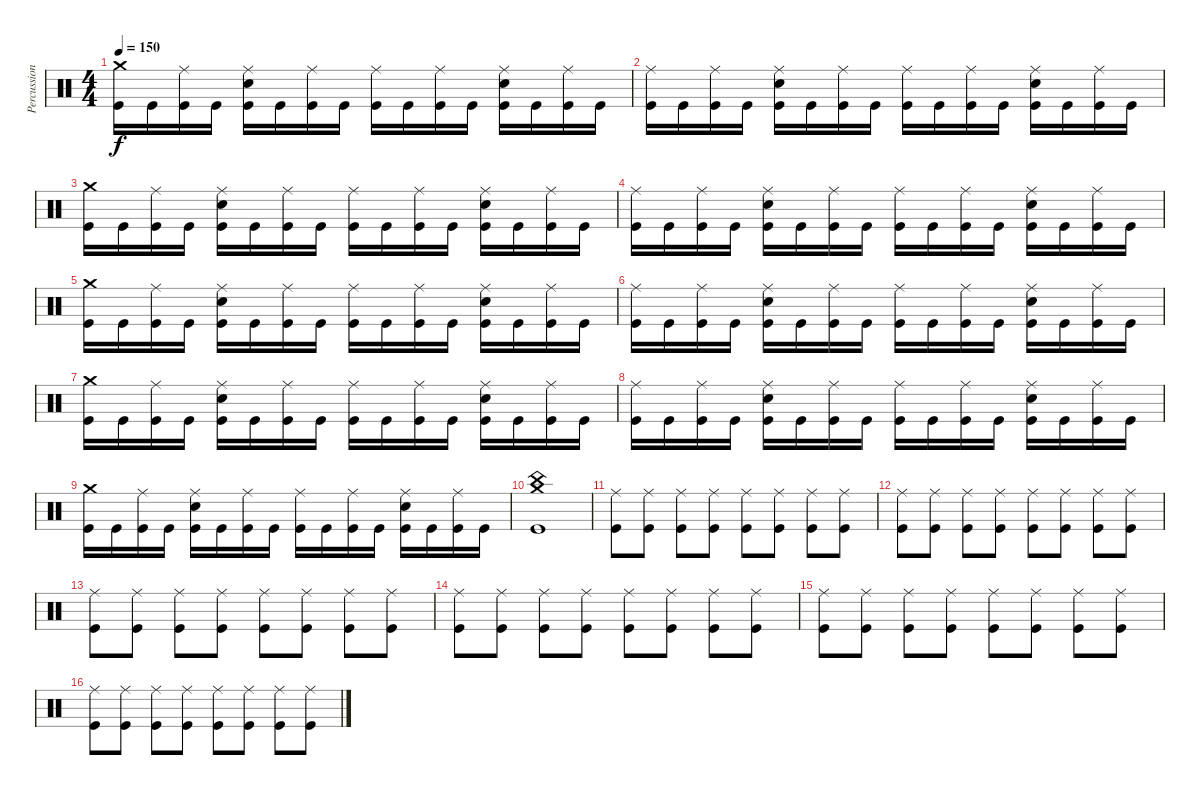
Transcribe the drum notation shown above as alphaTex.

\track ("Percussioni" "Percussion") {instrument percussion}
\staff {score}
\articulation defaults
\ts (4 4)
\tempo 150
\clef neutral
\ks c
("Crash medium (hit)" "Kick (hit)").16{dy f} "Kick (hit)".16 ("Ride (middle)" "Kick (hit)").16 "Kick (hit)".16 ("Ride (middle)" "Electric Snare (hit)" "Kick (hit)").16 "Kick (hit)".16 ("Ride (middle)" "Kick (hit)").16 "Kick (hit)".16 ("Ride (middle)" "Kick (hit)").16 "Kick (hit)".16 ("Ride (middle)" "Kick (hit)").16 "Kick (hit)".16 ("Ride (middle)" "Electric Snare (hit)" "Kick (hit)").16 "Kick (hit)".16 ("Ride (middle)" "Kick (hit)").16 "Kick (hit)".16 |
("Ride (middle)" "Kick (hit)").16 "Kick (hit)".16 ("Ride (middle)" "Kick (hit)").16 "Kick (hit)".16 ("Ride (middle)" "Electric Snare (hit)" "Kick (hit)").16 "Kick (hit)".16 ("Ride (middle)" "Kick (hit)").16 "Kick (hit)".16 ("Ride (middle)" "Kick (hit)").16 "Kick (hit)".16 ("Ride (middle)" "Kick (hit)").16 "Kick (hit)".16 ("Ride (middle)" "Electric Snare (hit)" "Kick (hit)").16 "Kick (hit)".16 ("Ride (middle)" "Kick (hit)").16 "Kick (hit)".16 |
("Crash medium (hit)" "Kick (hit)").16 "Kick (hit)".16 ("Ride (middle)" "Kick (hit)").16 "Kick (hit)".16 ("Ride (middle)" "Electric Snare (hit)" "Kick (hit)").16 "Kick (hit)".16 ("Ride (middle)" "Kick (hit)").16 "Kick (hit)".16 ("Ride (middle)" "Kick (hit)").16 "Kick (hit)".16 ("Ride (middle)" "Kick (hit)").16 "Kick (hit)".16 ("Ride (middle)" "Electric Snare (hit)" "Kick (hit)").16 "Kick (hit)".16 ("Ride (middle)" "Kick (hit)").16 "Kick (hit)".16 |
("Ride (middle)" "Kick (hit)").16 "Kick (hit)".16 ("Ride (middle)" "Kick (hit)").16 "Kick (hit)".16 ("Ride (middle)" "Electric Snare (hit)" "Kick (hit)").16 "Kick (hit)".16 ("Ride (middle)" "Kick (hit)").16 "Kick (hit)".16 ("Ride (middle)" "Kick (hit)").16 "Kick (hit)".16 ("Ride (middle)" "Kick (hit)").16 "Kick (hit)".16 ("Ride (middle)" "Electric Snare (hit)" "Kick (hit)").16 "Kick (hit)".16 ("Ride (middle)" "Kick (hit)").16 "Kick (hit)".16 |
("Crash medium (hit)" "Kick (hit)").16 "Kick (hit)".16 ("Ride (middle)" "Kick (hit)").16 "Kick (hit)".16 ("Ride (middle)" "Electric Snare (hit)" "Kick (hit)").16 "Kick (hit)".16 ("Ride (middle)" "Kick (hit)").16 "Kick (hit)".16 ("Ride (middle)" "Kick (hit)").16 "Kick (hit)".16 ("Ride (middle)" "Kick (hit)").16 "Kick (hit)".16 ("Ride (middle)" "Electric Snare (hit)" "Kick (hit)").16 "Kick (hit)".16 ("Ride (middle)" "Kick (hit)").16 "Kick (hit)".16 |
("Ride (middle)" "Kick (hit)").16 "Kick (hit)".16 ("Ride (middle)" "Kick (hit)").16 "Kick (hit)".16 ("Ride (middle)" "Electric Snare (hit)" "Kick (hit)").16 "Kick (hit)".16 ("Ride (middle)" "Kick (hit)").16 "Kick (hit)".16 ("Ride (middle)" "Kick (hit)").16 "Kick (hit)".16 ("Ride (middle)" "Kick (hit)").16 "Kick (hit)".16 ("Ride (middle)" "Electric Snare (hit)" "Kick (hit)").16 "Kick (hit)".16 ("Ride (middle)" "Kick (hit)").16 "Kick (hit)".16 |
("Crash medium (hit)" "Kick (hit)").16 "Kick (hit)".16 ("Ride (middle)" "Kick (hit)").16 "Kick (hit)".16 ("Ride (middle)" "Electric Snare (hit)" "Kick (hit)").16 "Kick (hit)".16 ("Ride (middle)" "Kick (hit)").16 "Kick (hit)".16 ("Ride (middle)" "Kick (hit)").16 "Kick (hit)".16 ("Ride (middle)" "Kick (hit)").16 "Kick (hit)".16 ("Ride (middle)" "Electric Snare (hit)" "Kick (hit)").16 "Kick (hit)".16 ("Ride (middle)" "Kick (hit)").16 "Kick (hit)".16 |
("Ride (middle)" "Kick (hit)").16 "Kick (hit)".16 ("Ride (middle)" "Kick (hit)").16 "Kick (hit)".16 ("Ride (middle)" "Electric Snare (hit)" "Kick (hit)").16 "Kick (hit)".16 ("Ride (middle)" "Kick (hit)").16 "Kick (hit)".16 ("Ride (middle)" "Kick (hit)").16 "Kick (hit)".16 ("Ride (middle)" "Kick (hit)").16 "Kick (hit)".16 ("Ride (middle)" "Electric Snare (hit)" "Kick (hit)").16 "Kick (hit)".16 ("Ride (middle)" "Kick (hit)").16 "Kick (hit)".16 |
("Crash medium (hit)" "Kick (hit)").16 "Kick (hit)".16 ("Ride (middle)" "Kick (hit)").16 "Kick (hit)".16 ("Ride (middle)" "Electric Snare (hit)" "Kick (hit)").16 "Kick (hit)".16 ("Ride (middle)" "Kick (hit)").16 "Kick (hit)".16 ("Ride (middle)" "Kick (hit)").16 "Kick (hit)".16 ("Ride (middle)" "Kick (hit)").16 "Kick (hit)".16 ("Ride (middle)" "Electric Snare (hit)" "Kick (hit)").16 "Kick (hit)".16 ("Ride (middle)" "Kick (hit)").16 "Kick (hit)".16 |
("Crash medium (hit)" "China (hit)" "Kick (hit)").1 |
("Ride (middle)" "Kick (hit)").8{volume 10} ("Ride (middle)" "Kick (hit)").8 ("Ride (middle)" "Kick (hit)").8 ("Ride (middle)" "Kick (hit)").8 ("Ride (middle)" "Kick (hit)").8 ("Ride (middle)" "Kick (hit)").8 ("Ride (middle)" "Kick (hit)").8 ("Ride (middle)" "Kick (hit)").8 |
("Ride (middle)" "Kick (hit)").8 ("Ride (middle)" "Kick (hit)").8 ("Ride (middle)" "Kick (hit)").8 ("Ride (middle)" "Kick (hit)").8 ("Ride (middle)" "Kick (hit)").8 ("Ride (middle)" "Kick (hit)").8 ("Ride (middle)" "Kick (hit)").8 ("Ride (middle)" "Kick (hit)").8 |
("Ride (middle)" "Kick (hit)").8 ("Ride (middle)" "Kick (hit)").8 ("Ride (middle)" "Kick (hit)").8 ("Ride (middle)" "Kick (hit)").8 ("Ride (middle)" "Kick (hit)").8 ("Ride (middle)" "Kick (hit)").8 ("Ride (middle)" "Kick (hit)").8 ("Ride (middle)" "Kick (hit)").8 |
("Ride (middle)" "Kick (hit)").8 ("Ride (middle)" "Kick (hit)").8 ("Ride (middle)" "Kick (hit)").8 ("Ride (middle)" "Kick (hit)").8 ("Ride (middle)" "Kick (hit)").8 ("Ride (middle)" "Kick (hit)").8 ("Ride (middle)" "Kick (hit)").8 ("Ride (middle)" "Kick (hit)").8 |
("Ride (middle)" "Kick (hit)").8 ("Ride (middle)" "Kick (hit)").8 ("Ride (middle)" "Kick (hit)").8 ("Ride (middle)" "Kick (hit)").8 ("Ride (middle)" "Kick (hit)").8 ("Ride (middle)" "Kick (hit)").8 ("Ride (middle)" "Kick (hit)").8 ("Ride (middle)" "Kick (hit)").8 |
("Ride (middle)" "Kick (hit)").8 ("Ride (middle)" "Kick (hit)").8 ("Ride (middle)" "Kick (hit)").8 ("Ride (middle)" "Kick (hit)").8 ("Ride (middle)" "Kick (hit)").8 ("Ride (middle)" "Kick (hit)").8 ("Ride (middle)" "Kick (hit)").8 ("Ride (middle)" "Kick (hit)").8
